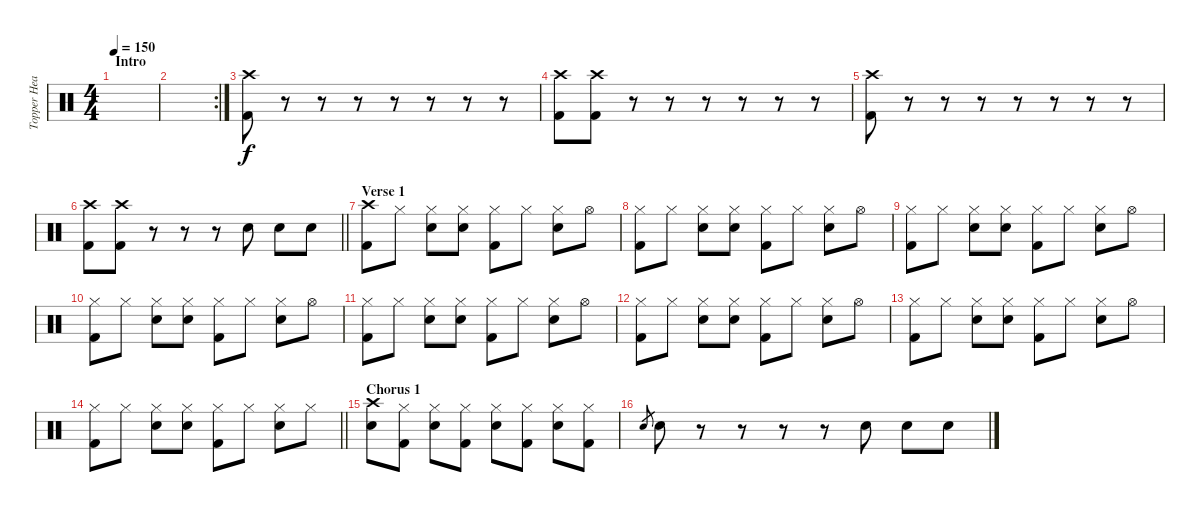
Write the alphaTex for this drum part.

\track ("Topper Headon - Drums" "Topper Hea") {instrument percussion}
\staff {score}
\articulation defaults
\ts (4 4)
\section ("" "Intro")
\tempo 150
\clef neutral
\ks c
|
\rc 2
|
("Crash high (hit)" "Kick (hit) 2").8 r.8 r.8 r.8 r.8 r.8 r.8 r.8 |
("Crash high (hit)" "Kick (hit) 2").8 ("Crash high (hit)" "Kick (hit) 2").8 r.8 r.8 r.8 r.8 r.8 r.8 |
("Crash high (hit)" "Kick (hit) 2").8 r.8 r.8 r.8 r.8 r.8 r.8 r.8 |
\barLineRight lightlight
("Crash high (hit)" "Kick (hit) 2").8 ("Crash high (hit)" "Kick (hit) 2").8 r.8 r.8 r.8 "Electric Snare (hit)".8 "Electric Snare (hit)".8 "Electric Snare (hit)".8 |
\section ("" "Verse 1")
("Crash high (hit)" "Kick (hit) 2").8 "Hi-Hat (closed)".8 ("Hi-Hat (closed)" "Electric Snare (hit)").8 ("Hi-Hat (closed)" "Electric Snare (hit)").8 ("Hi-Hat (closed)" "Kick (hit) 2").8 "Hi-Hat (closed)".8 ("Hi-Hat (closed)" "Electric Snare (hit)").8 "Hi-Hat (open)".8 |
("Hi-Hat (closed)" "Kick (hit) 2").8 "Hi-Hat (closed)".8 ("Hi-Hat (closed)" "Electric Snare (hit)").8 ("Hi-Hat (closed)" "Electric Snare (hit)").8 ("Hi-Hat (closed)" "Kick (hit) 2").8 "Hi-Hat (closed)".8 ("Hi-Hat (closed)" "Electric Snare (hit)").8 "Hi-Hat (open)".8 |
("Hi-Hat (closed)" "Kick (hit) 2").8 "Hi-Hat (closed)".8 ("Hi-Hat (closed)" "Electric Snare (hit)").8 ("Hi-Hat (closed)" "Electric Snare (hit)").8 ("Hi-Hat (closed)" "Kick (hit) 2").8 "Hi-Hat (closed)".8 ("Hi-Hat (closed)" "Electric Snare (hit)").8 "Hi-Hat (open)".8 |
("Hi-Hat (closed)" "Kick (hit) 2").8 "Hi-Hat (closed)".8 ("Hi-Hat (closed)" "Electric Snare (hit)").8 ("Hi-Hat (closed)" "Electric Snare (hit)").8 ("Hi-Hat (closed)" "Kick (hit) 2").8 "Hi-Hat (closed)".8 ("Hi-Hat (closed)" "Electric Snare (hit)").8 "Hi-Hat (open)".8 |
("Hi-Hat (closed)" "Kick (hit) 2").8 "Hi-Hat (closed)".8 ("Hi-Hat (closed)" "Electric Snare (hit)").8 ("Hi-Hat (closed)" "Electric Snare (hit)").8 ("Hi-Hat (closed)" "Kick (hit) 2").8 "Hi-Hat (closed)".8 ("Hi-Hat (closed)" "Electric Snare (hit)").8 "Hi-Hat (open)".8 |
("Hi-Hat (closed)" "Kick (hit) 2").8 "Hi-Hat (closed)".8 ("Hi-Hat (closed)" "Electric Snare (hit)").8 ("Hi-Hat (closed)" "Electric Snare (hit)").8 ("Hi-Hat (closed)" "Kick (hit) 2").8 "Hi-Hat (closed)".8 ("Hi-Hat (closed)" "Electric Snare (hit)").8 "Hi-Hat (open)".8 |
("Hi-Hat (closed)" "Kick (hit) 2").8 "Hi-Hat (closed)".8 ("Hi-Hat (closed)" "Electric Snare (hit)").8 ("Hi-Hat (closed)" "Electric Snare (hit)").8 ("Hi-Hat (closed)" "Kick (hit) 2").8 "Hi-Hat (closed)".8 ("Hi-Hat (closed)" "Electric Snare (hit)").8 "Hi-Hat (open)".8 |
\barLineRight lightlight
("Hi-Hat (closed)" "Kick (hit) 2").8 "Hi-Hat (closed)".8 ("Hi-Hat (closed)" "Electric Snare (hit)").8 ("Hi-Hat (closed)" "Electric Snare (hit)").8 ("Hi-Hat (closed)" "Kick (hit) 2").8 "Hi-Hat (closed)".8 ("Hi-Hat (closed)" "Electric Snare (hit)").8 "Hi-Hat (closed)".8 |
\section ("" "Chorus 1")
("Crash high (hit)" "Electric Snare (hit)").8 ("Hi-Hat (closed)" "Kick (hit) 2").8 ("Hi-Hat (closed)" "Electric Snare (hit)").8 ("Hi-Hat (closed)" "Kick (hit) 2").8 ("Hi-Hat (closed)" "Electric Snare (hit)").8 ("Hi-Hat (closed)" "Kick (hit) 2").8 ("Hi-Hat (closed)" "Electric Snare (hit)").8 ("Hi-Hat (closed)" "Kick (hit) 2").8 |
"Electric Snare (hit)".8{gr} "Electric Snare (hit)".8 r.8 r.8 r.8 r.8 "Electric Snare (hit)".8 "Electric Snare (hit)".8 "Electric Snare (hit)".8
